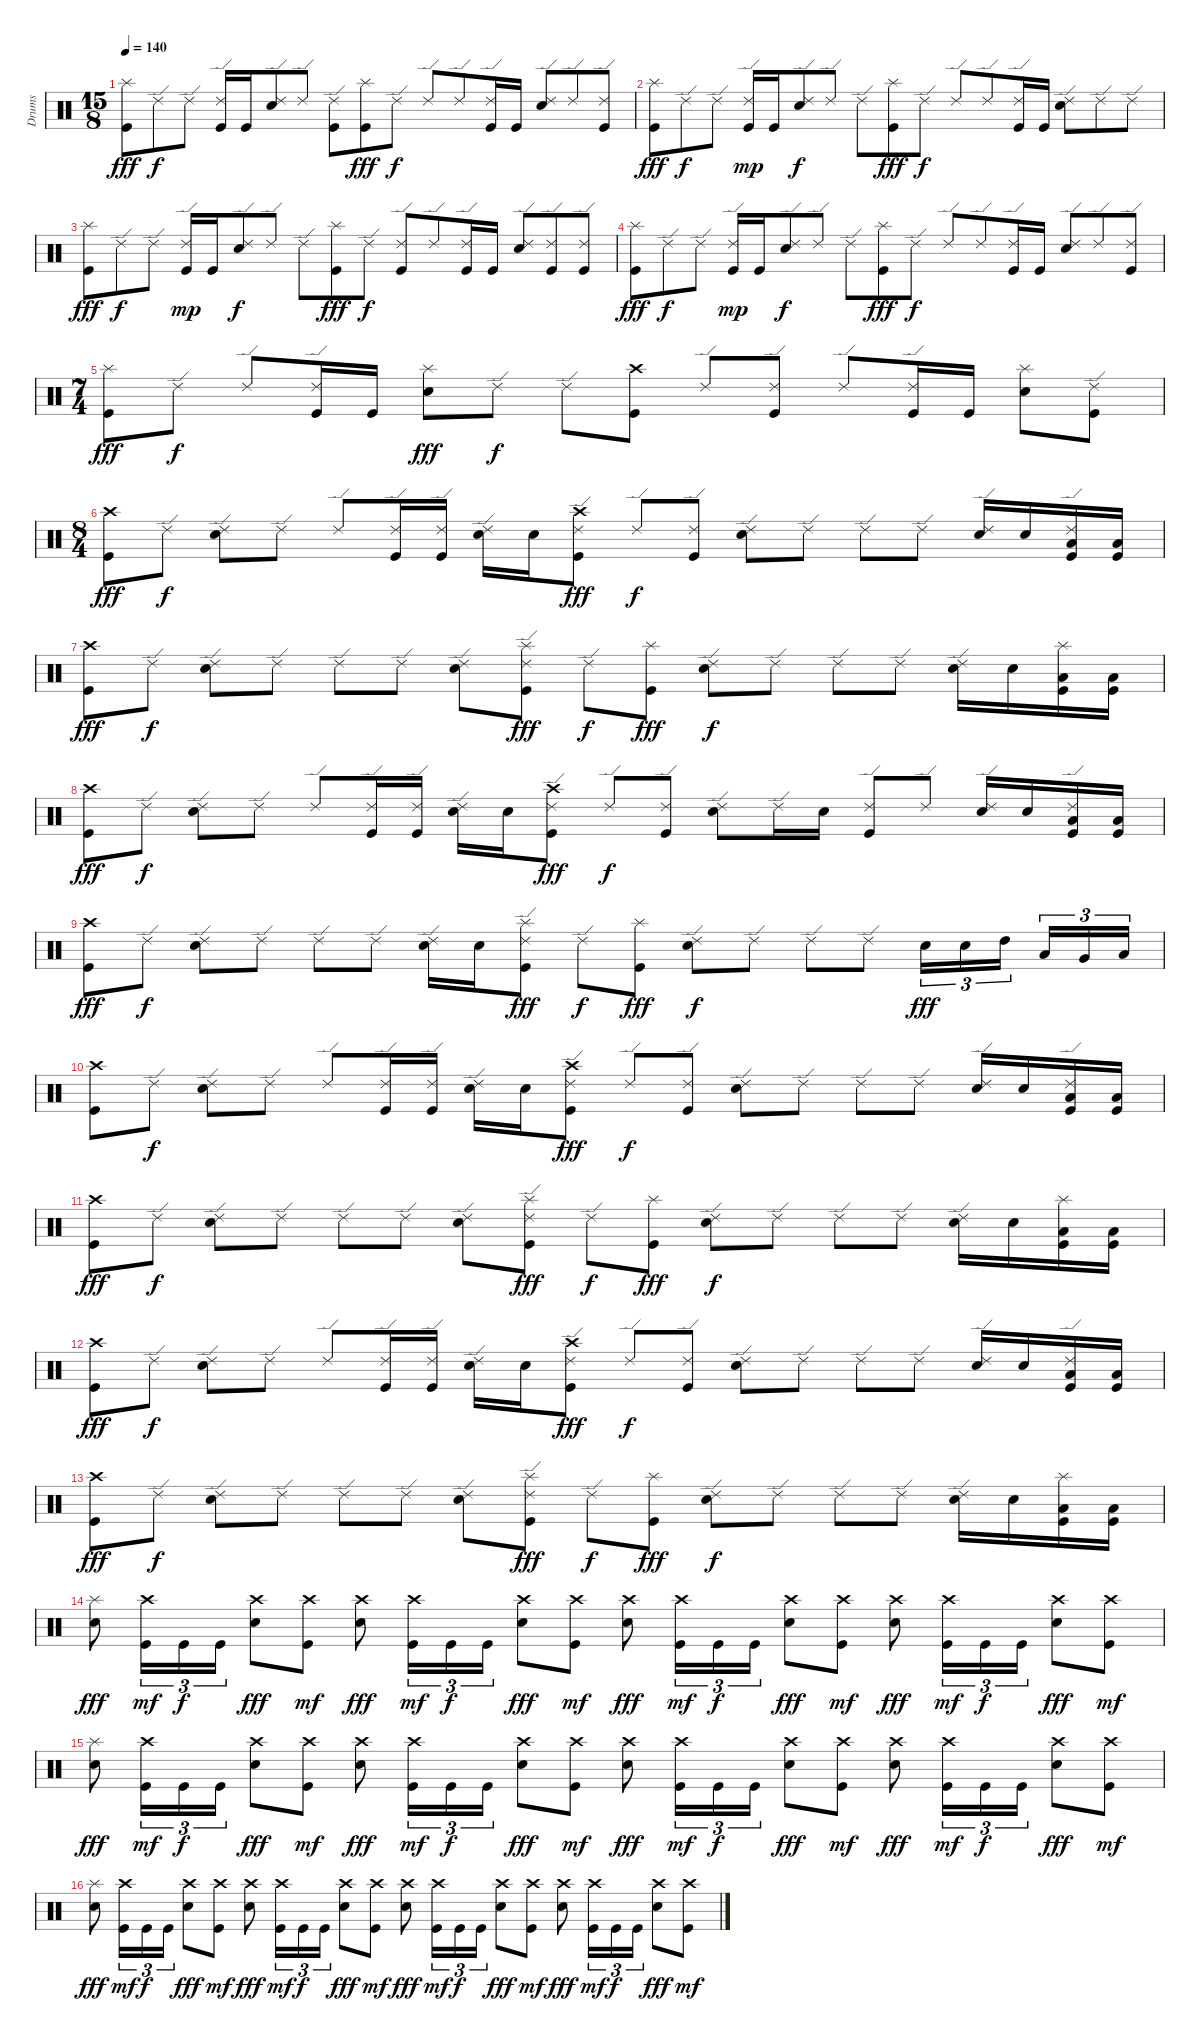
\track ("Drums" "Drums") {instrument percussion}
\staff {score}
\articulation defaults
\ts (15 8)
\tempo 140
\clef neutral
\ks c
("Splash (hit)" "Kick (hit)").8{dy fff} "Ride (edge) 2".8{dy f} "Ride (edge) 2".8 ("Ride (edge) 2" "Kick (hit)").16 "Kick (hit)".16 ("Ride (edge) 2" "Snare (hit) 2").8 "Ride (edge) 2".8 ("Ride (edge) 2" "Kick (hit)").8 ("Splash (hit)" "Kick (hit)").8{dy fff} "Ride (edge) 2".8{dy f} "Ride (edge) 2".8 "Ride (edge) 2".8 ("Ride (edge) 2" "Kick (hit)").16 "Kick (hit)".16 ("Ride (edge) 2" "Snare (hit) 2").8 "Ride (edge) 2".8 ("Ride (edge) 2" "Kick (hit)").8 |
("Splash (hit)" "Kick (hit)").8{dy fff} "Ride (edge) 2".8{dy f} "Ride (edge) 2".8 ("Ride (edge) 2" "Kick (hit)").16{dy mp} "Kick (hit)".16 ("Ride (edge) 2" "Snare (hit) 2").8{dy f} "Ride (edge) 2".8 "Ride (edge) 2".8 ("Splash (hit)" "Kick (hit)").8{dy fff} "Ride (edge) 2".8{dy f} "Ride (edge) 2".8 "Ride (edge) 2".8 ("Ride (edge) 2" "Kick (hit)").16 "Kick (hit)".16 ("Ride (edge) 2" "Snare (hit) 2").8 "Ride (edge) 2".8 "Ride (edge) 2".8 |
("Splash (hit)" "Kick (hit)").8{dy fff} "Ride (edge) 2".8{dy f} "Ride (edge) 2".8 ("Ride (edge) 2" "Kick (hit)").16{dy mp} "Kick (hit)".16 ("Ride (edge) 2" "Snare (hit) 2").8{dy f} "Ride (edge) 2".8 "Ride (edge) 2".8 ("Splash (hit)" "Kick (hit)").8{dy fff} "Ride (edge) 2".8{dy f} ("Ride (edge) 2" "Kick (hit)").8 "Ride (edge) 2".8 ("Ride (edge) 2" "Kick (hit)").16 "Kick (hit)".16 ("Ride (edge) 2" "Snare (hit) 2").8 ("Ride (edge) 2" "Kick (hit)").8 ("Ride (edge) 2" "Kick (hit)").8 |
("Splash (hit)" "Kick (hit)").8{dy fff} "Ride (edge) 2".8{dy f} "Ride (edge) 2".8 ("Ride (edge) 2" "Kick (hit)").16{dy mp} "Kick (hit)".16 ("Ride (edge) 2" "Snare (hit) 2").8{dy f} "Ride (edge) 2".8 "Ride (edge) 2".8 ("Splash (hit)" "Kick (hit)").8{dy fff} "Ride (edge) 2".8{dy f} "Ride (edge) 2".8 "Ride (edge) 2".8 ("Ride (edge) 2" "Kick (hit)").16 "Kick (hit)".16 ("Ride (edge) 2" "Snare (hit) 2").8 "Ride (edge) 2".8 ("Ride (edge) 2" "Kick (hit)").8 |
\ts (7 4)
("Splash (hit)" "Kick (hit)").8{dy fff} "Ride (edge) 2".8{dy f} "Ride (edge) 2".8 ("Ride (edge) 2" "Kick (hit)").16 "Kick (hit)".16 ("Splash (hit)" "Snare (hit) 2").8{dy fff} "Ride (edge) 2".8{dy f} "Ride (edge) 2".8 ("Crash high (hit)" "Kick (hit)").8 "Ride (edge) 2".8 ("Ride (edge) 2" "Kick (hit)").8 "Ride (edge) 2".8 ("Ride (edge) 2" "Kick (hit)").16 "Kick (hit)".16 ("Splash (hit)" "Snare (hit) 2").8 ("Ride (edge) 2" "Kick (hit)").8 |
\ts (8 4)
("Crash high (hit)" "Kick (hit)").8{dy fff} "Ride (edge) 2".8{dy f} ("Ride (edge) 2" "Snare (hit) 2").8 "Ride (edge) 2".8 "Ride (edge) 2".8 ("Ride (edge) 2" "Kick (hit)").16 ("Ride (edge) 2" "Kick (hit)").16 ("Ride (edge) 2" "Snare (hit) 2").16 "Snare (hit) 2".16 ("Crash high (hit)" "Kick (hit)" "Ride (edge) 2").8{dy fff} "Ride (edge) 2".8{dy f} ("Ride (edge) 2" "Kick (hit)").8 ("Ride (edge) 2" "Snare (hit) 2").8 "Ride (edge) 2".8 "Ride (edge) 2".8 "Ride (edge) 2".8 ("Ride (edge) 2" "Snare (hit) 2").16 "Snare (hit) 2".16 ("Ride (edge) 2" "Low Tom (hit)" "Kick (hit)").16 ("Low Floor Tom (hit)" "Kick (hit)").16 |
("Crash high (hit)" "Kick (hit)").8{dy fff} "Ride (edge) 2".8{dy f} ("Ride (edge) 2" "Snare (hit) 2").8 "Ride (edge) 2".8 "Ride (edge) 2".8 "Ride (edge) 2".8 ("Ride (edge) 2" "Snare (hit) 2").8 ("Splash (hit)" "Kick (hit)" "Ride (edge) 2").8{dy fff} "Ride (edge) 2".8{dy f} ("Splash (hit)" "Kick (hit)").8{dy fff} ("Ride (edge) 2" "Snare (hit) 2").8{dy f} "Ride (edge) 2".8 "Ride (edge) 2".8 "Ride (edge) 2".8 ("Ride (edge) 2" "Snare (hit) 2").16 "Snare (hit) 2".16 ("Splash (hit)" "Low Tom (hit)" "Kick (hit)").16 ("Low Floor Tom (hit)" "Kick (hit)").16 |
("Crash high (hit)" "Kick (hit)").8{dy fff} "Ride (edge) 2".8{dy f} ("Ride (edge) 2" "Snare (hit) 2").8 "Ride (edge) 2".8 "Ride (edge) 2".8 ("Ride (edge) 2" "Kick (hit)").16 ("Ride (edge) 2" "Kick (hit)").16 ("Ride (edge) 2" "Snare (hit) 2").16 "Snare (hit) 2".16 ("Crash high (hit)" "Kick (hit)" "Ride (edge) 2").8{dy fff} "Ride (edge) 2".8{dy f} ("Ride (edge) 2" "Kick (hit)").8 ("Ride (edge) 2" "Snare (hit) 2").8 "Ride (edge) 2".16 "Snare (hit) 2".16 ("Ride (edge) 2" "Kick (hit)").8 "Ride (edge) 2".8 ("Ride (edge) 2" "Snare (hit) 2").16 "Snare (hit) 2".16 ("Ride (edge) 2" "Low Tom (hit)" "Kick (hit)").16 ("Low Floor Tom (hit)" "Kick (hit)").16 |
("Crash high (hit)" "Kick (hit)").8{dy fff} "Ride (edge) 2".8{dy f} ("Ride (edge) 2" "Snare (hit) 2").8 "Ride (edge) 2".8 "Ride (edge) 2".8 "Ride (edge) 2".8 ("Ride (edge) 2" "Snare (hit) 2").16 "Snare (hit) 2".16 ("Splash (hit)" "Kick (hit)" "Ride (edge) 2").8{dy fff} "Ride (edge) 2".8{dy f} ("Splash (hit)" "Kick (hit)").8{dy fff} ("Ride (edge) 2" "Snare (hit) 2").8{dy f} "Ride (edge) 2".8 "Ride (edge) 2".8 "Ride (edge) 2".8 "Snare (hit) 2".16{tu (3 2) dy fff} "Snare (hit) 2".16{tu (3 2)} "High Tom (hit)".16{tu (3 2)} "Low Tom (hit)".16{tu (3 2)} "Very Low Tom (hit)".16{tu (3 2)} "Low Floor Tom (hit)".16{tu (3 2)} |
("Crash high (hit)" "Kick (hit)").8 "Ride (edge) 2".8{dy f} ("Ride (edge) 2" "Snare (hit) 2").8 "Ride (edge) 2".8 "Ride (edge) 2".8 ("Ride (edge) 2" "Kick (hit)").16 ("Ride (edge) 2" "Kick (hit)").16 ("Ride (edge) 2" "Snare (hit) 2").16 "Snare (hit) 2".16 ("Crash high (hit)" "Kick (hit)" "Ride (edge) 2").8{dy fff} "Ride (edge) 2".8{dy f} ("Ride (edge) 2" "Kick (hit)").8 ("Ride (edge) 2" "Snare (hit) 2").8 "Ride (edge) 2".8 "Ride (edge) 2".8 "Ride (edge) 2".8 ("Ride (edge) 2" "Snare (hit) 2").16 "Snare (hit) 2".16 ("Ride (edge) 2" "Low Tom (hit)" "Kick (hit)").16 ("Low Floor Tom (hit)" "Kick (hit)").16 |
("Crash high (hit)" "Kick (hit)").8{dy fff} "Ride (edge) 2".8{dy f} ("Ride (edge) 2" "Snare (hit) 2").8 "Ride (edge) 2".8 "Ride (edge) 2".8 "Ride (edge) 2".8 ("Ride (edge) 2" "Snare (hit) 2").8 ("Splash (hit)" "Kick (hit)" "Ride (edge) 2").8{dy fff} "Ride (edge) 2".8{dy f} ("Splash (hit)" "Kick (hit)").8{dy fff} ("Ride (edge) 2" "Snare (hit) 2").8{dy f} "Ride (edge) 2".8 "Ride (edge) 2".8 "Ride (edge) 2".8 ("Ride (edge) 2" "Snare (hit) 2").16 "Snare (hit) 2".16 ("Splash (hit)" "Low Tom (hit)" "Kick (hit)").16 ("Low Floor Tom (hit)" "Kick (hit)").16 |
("Crash high (hit)" "Kick (hit)").8{dy fff} "Ride (edge) 2".8{dy f} ("Ride (edge) 2" "Snare (hit) 2").8 "Ride (edge) 2".8 "Ride (edge) 2".8 ("Ride (edge) 2" "Kick (hit)").16 ("Ride (edge) 2" "Kick (hit)").16 ("Ride (edge) 2" "Snare (hit) 2").16 "Snare (hit) 2".16 ("Crash high (hit)" "Kick (hit)" "Ride (edge) 2").8{dy fff} "Ride (edge) 2".8{dy f} ("Ride (edge) 2" "Kick (hit)").8 ("Ride (edge) 2" "Snare (hit) 2").8 "Ride (edge) 2".8 "Ride (edge) 2".8 "Ride (edge) 2".8 ("Ride (edge) 2" "Snare (hit) 2").16 "Snare (hit) 2".16 ("Ride (edge) 2" "Low Tom (hit)" "Kick (hit)").16 ("Low Floor Tom (hit)" "Kick (hit)").16 |
("Crash high (hit)" "Kick (hit)").8{dy fff} "Ride (edge) 2".8{dy f} ("Ride (edge) 2" "Snare (hit) 2").8 "Ride (edge) 2".8 "Ride (edge) 2".8 "Ride (edge) 2".8 ("Ride (edge) 2" "Snare (hit) 2").8 ("Splash (hit)" "Kick (hit)" "Ride (edge) 2").8{dy fff} "Ride (edge) 2".8{dy f} ("Splash (hit)" "Kick (hit)").8{dy fff} ("Ride (edge) 2" "Snare (hit) 2").8{dy f} "Ride (edge) 2".8 "Ride (edge) 2".8 "Ride (edge) 2".8 ("Ride (edge) 2" "Snare (hit) 2").16 "Snare (hit) 2".16 ("Splash (hit)" "Low Tom (hit)" "Kick (hit)").16 ("Low Floor Tom (hit)" "Kick (hit)").16 |
("Splash (hit)" "Snare (hit) 2").8{dy fff} ("Crash high (hit)" "Kick (hit)").16{tu (3 2) dy mf} "Kick (hit)".16{tu (3 2) dy f} "Kick (hit)".16{tu (3 2)} ("Crash high (hit)" "Snare (hit) 2").8{dy fff} ("Crash high (hit)" "Kick (hit)").8{dy mf} ("Crash high (hit)" "Snare (hit) 2").8{dy fff} ("Crash high (hit)" "Kick (hit)").16{tu (3 2) dy mf} "Kick (hit)".16{tu (3 2) dy f} "Kick (hit)".16{tu (3 2)} ("Crash high (hit)" "Snare (hit) 2").8{dy fff} ("Crash high (hit)" "Kick (hit)").8{dy mf} ("Crash high (hit)" "Snare (hit) 2").8{dy fff} ("Crash high (hit)" "Kick (hit)").16{tu (3 2) dy mf} "Kick (hit)".16{tu (3 2) dy f} "Kick (hit)".16{tu (3 2)} ("Crash high (hit)" "Snare (hit) 2").8{dy fff} ("Crash high (hit)" "Kick (hit)").8{dy mf} ("Crash high (hit)" "Snare (hit) 2").8{dy fff} ("Crash high (hit)" "Kick (hit)").16{tu (3 2) dy mf} "Kick (hit)".16{tu (3 2) dy f} "Kick (hit)".16{tu (3 2)} ("Crash high (hit)" "Snare (hit) 2").8{dy fff} ("Crash high (hit)" "Kick (hit)").8{dy mf} |
("Splash (hit)" "Snare (hit) 2").8{dy fff} ("Crash high (hit)" "Kick (hit)").16{tu (3 2) dy mf} "Kick (hit)".16{tu (3 2) dy f} "Kick (hit)".16{tu (3 2)} ("Crash high (hit)" "Snare (hit) 2").8{dy fff} ("Crash high (hit)" "Kick (hit)").8{dy mf} ("Crash high (hit)" "Snare (hit) 2").8{dy fff} ("Crash high (hit)" "Kick (hit)").16{tu (3 2) dy mf} "Kick (hit)".16{tu (3 2) dy f} "Kick (hit)".16{tu (3 2)} ("Crash high (hit)" "Snare (hit) 2").8{dy fff} ("Crash high (hit)" "Kick (hit)").8{dy mf} ("Crash high (hit)" "Snare (hit) 2").8{dy fff} ("Crash high (hit)" "Kick (hit)").16{tu (3 2) dy mf} "Kick (hit)".16{tu (3 2) dy f} "Kick (hit)".16{tu (3 2)} ("Crash high (hit)" "Snare (hit) 2").8{dy fff} ("Crash high (hit)" "Kick (hit)").8{dy mf} ("Crash high (hit)" "Snare (hit) 2").8{dy fff} ("Crash high (hit)" "Kick (hit)").16{tu (3 2) dy mf} "Kick (hit)".16{tu (3 2) dy f} "Kick (hit)".16{tu (3 2)} ("Crash high (hit)" "Snare (hit) 2").8{dy fff} ("Crash high (hit)" "Kick (hit)").8{dy mf} |
("Splash (hit)" "Snare (hit) 2").8{dy fff} ("Crash high (hit)" "Kick (hit)").16{tu (3 2) dy mf} "Kick (hit)".16{tu (3 2) dy f} "Kick (hit)".16{tu (3 2)} ("Crash high (hit)" "Snare (hit) 2").8{dy fff} ("Crash high (hit)" "Kick (hit)").8{dy mf} ("Crash high (hit)" "Snare (hit) 2").8{dy fff} ("Crash high (hit)" "Kick (hit)").16{tu (3 2) dy mf} "Kick (hit)".16{tu (3 2) dy f} "Kick (hit)".16{tu (3 2)} ("Crash high (hit)" "Snare (hit) 2").8{dy fff} ("Crash high (hit)" "Kick (hit)").8{dy mf} ("Crash high (hit)" "Snare (hit) 2").8{dy fff} ("Crash high (hit)" "Kick (hit)").16{tu (3 2) dy mf} "Kick (hit)".16{tu (3 2) dy f} "Kick (hit)".16{tu (3 2)} ("Crash high (hit)" "Snare (hit) 2").8{dy fff} ("Crash high (hit)" "Kick (hit)").8{dy mf} ("Crash high (hit)" "Snare (hit) 2").8{dy fff} ("Crash high (hit)" "Kick (hit)").16{tu (3 2) dy mf} "Kick (hit)".16{tu (3 2) dy f} "Kick (hit)".16{tu (3 2)} ("Crash high (hit)" "Snare (hit) 2").8{dy fff} ("Crash high (hit)" "Kick (hit)").8{dy mf}
